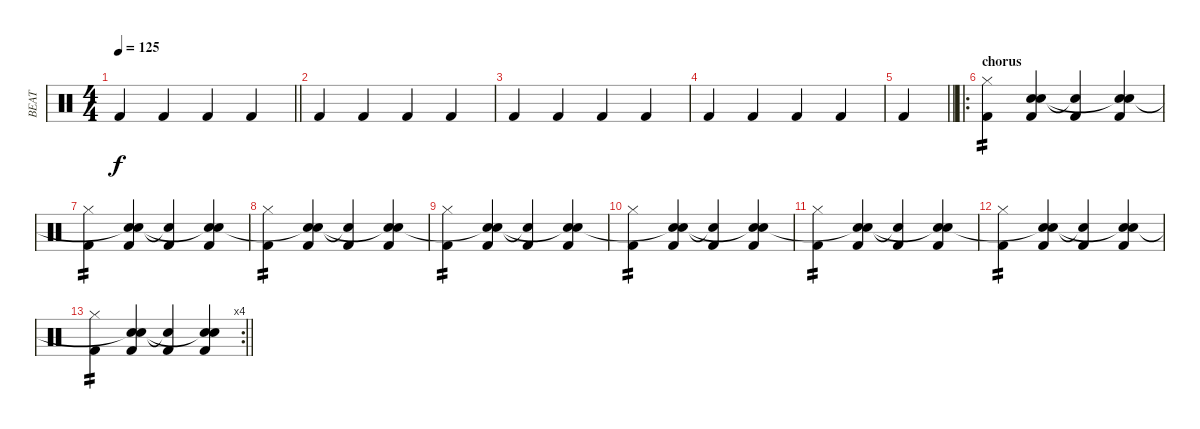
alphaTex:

\track ("BEAT" "BEAT") {instrument percussion bank 2}
\staff {score}
\articulation defaults
\ts (4 4)
\tempo 125
\clef neutral
\barLineRight lightlight
\ks c "Kick (hit) 2".4{dy f} "Kick (hit) 2".4 "Kick (hit) 2".4 "Kick (hit) 2".4
|
"Kick (hit) 2".4 "Kick (hit) 2".4 "Kick (hit) 2".4 "Kick (hit) 2".4 |
"Kick (hit) 2".4 "Kick (hit) 2".4 "Kick (hit) 2".4 "Kick (hit) 2".4 |
"Kick (hit) 2".4 "Kick (hit) 2".4 "Kick (hit) 2".4 "Kick (hit) 2".4 |
\barLineRight lightlight "Kick (hit) 2".4
|
\ro
\section ("" "chorus")
("Kick (hit) 2" "Hi-Hat (closed)").4{tp 2} ("Kick (hit) 2" "Electric Snare (hit)" "Snare (hit)").4 ("Kick (hit) 2" "Snare (hit)"{t}).4 ("Kick (hit) 2" "Electric Snare (hit)" "Snare (hit)"{t}).4 |
("Kick (hit) 2" "Hi-Hat (closed)").4{tp 2} ("Kick (hit) 2" "Electric Snare (hit)" "Snare (hit)"{t}).4 ("Kick (hit) 2" "Snare (hit)"{t}).4 ("Kick (hit) 2" "Electric Snare (hit)" "Snare (hit)"{t}).4 |
("Kick (hit) 2" "Hi-Hat (closed)").4{tp 2} ("Kick (hit) 2" "Electric Snare (hit)" "Snare (hit)"{t}).4 ("Kick (hit) 2" "Snare (hit)"{t}).4 ("Kick (hit) 2" "Electric Snare (hit)" "Snare (hit)"{t}).4 |
("Kick (hit) 2" "Hi-Hat (closed)").4{tp 2} ("Kick (hit) 2" "Electric Snare (hit)" "Snare (hit)"{t}).4 ("Kick (hit) 2" "Snare (hit)"{t}).4 ("Kick (hit) 2" "Electric Snare (hit)" "Snare (hit)"{t}).4 |
("Kick (hit) 2" "Hi-Hat (closed)").4{tp 2} ("Kick (hit) 2" "Electric Snare (hit)" "Snare (hit)"{t}).4 ("Kick (hit) 2" "Snare (hit)"{t}).4 ("Kick (hit) 2" "Electric Snare (hit)" "Snare (hit)"{t}).4 |
("Kick (hit) 2" "Hi-Hat (closed)").4{tp 2} ("Kick (hit) 2" "Electric Snare (hit)" "Snare (hit)"{t}).4 ("Kick (hit) 2" "Snare (hit)"{t}).4 ("Kick (hit) 2" "Electric Snare (hit)" "Snare (hit)"{t}).4 |
("Kick (hit) 2" "Hi-Hat (closed)").4{tp 2} ("Kick (hit) 2" "Electric Snare (hit)" "Snare (hit)"{t}).4 ("Kick (hit) 2" "Snare (hit)"{t}).4 ("Kick (hit) 2" "Electric Snare (hit)" "Snare (hit)"{t}).4 |
\rc 4
\barLineRight lightlight
("Kick (hit) 2" "Hi-Hat (closed)").4{tp 2} ("Kick (hit) 2" "Electric Snare (hit)" "Snare (hit)"{t}).4 ("Kick (hit) 2" "Snare (hit)"{t}).4 ("Kick (hit) 2" "Electric Snare (hit)" "Snare (hit)"{t}).4
